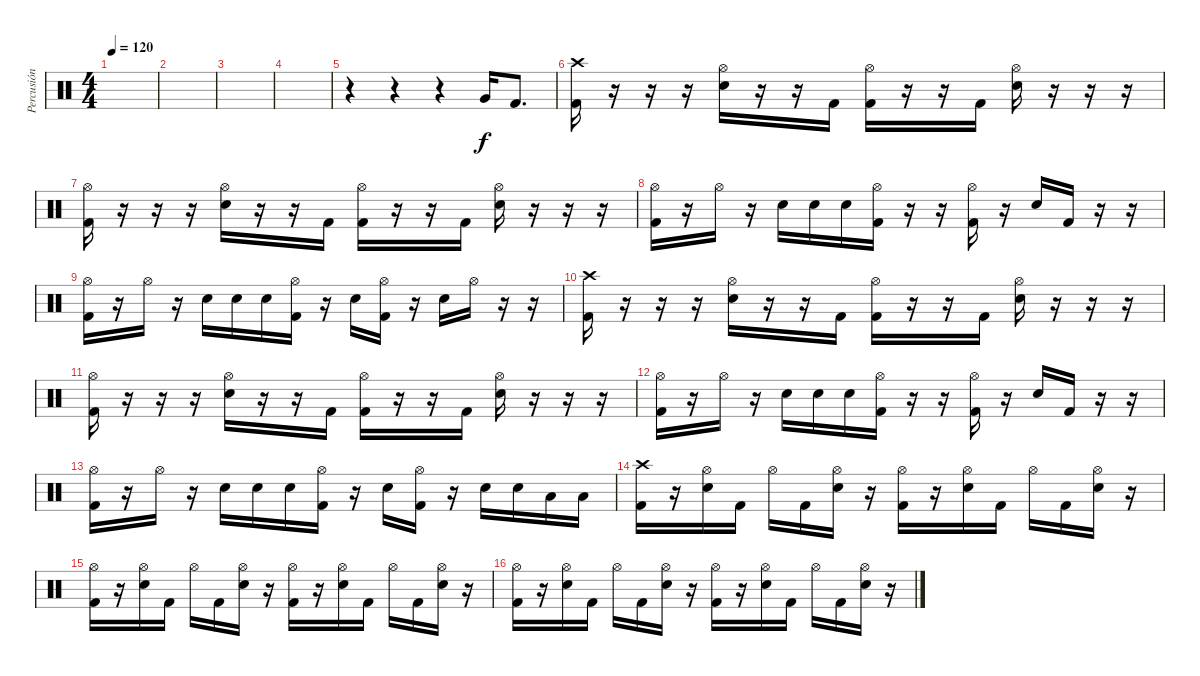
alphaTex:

\track ("Percusión" "Percusión") {instrument percussion}
\staff {score}
\articulation defaults
\ts (4 4)
\tempo 120
\clef neutral
\ks c
|
|
|
|
r.4 r.4 r.4 "Very Low Tom (hit)".16 "Kick (hit) 2".8{d} |
("Crash high (hit)" "Kick (hit) 2").16 r.16 r.16 r.16 ("Hi-Hat (open)" "Electric Snare (hit)").16 r.16 r.16 "Kick (hit) 2".16 ("Hi-Hat (open)" "Kick (hit) 2").16 r.16 r.16 "Kick (hit) 2".16 ("Hi-Hat (open)" "Electric Snare (hit)").16 r.16 r.16 r.16 |
("Hi-Hat (open)" "Kick (hit) 2").16 r.16 r.16 r.16 ("Hi-Hat (open)" "Electric Snare (hit)").16 r.16 r.16 "Kick (hit) 2".16 ("Hi-Hat (open)" "Kick (hit) 2").16 r.16 r.16 "Kick (hit) 2".16 ("Hi-Hat (open)" "Electric Snare (hit)").16 r.16 r.16 r.16 |
("Hi-Hat (open)" "Kick (hit) 2").16 r.16 "Hi-Hat (open)".16 r.16 "Electric Snare (hit)".16 "Electric Snare (hit)".16 "Electric Snare (hit)".16 ("Hi-Hat (open)" "Kick (hit) 2").16 r.16 r.16 ("Hi-Hat (open)" "Kick (hit) 2").16 r.16 "Electric Snare (hit)".16 "Kick (hit) 2".16 r.16 r.16 |
("Hi-Hat (open)" "Kick (hit) 2").16 r.16 "Hi-Hat (open)".16 r.16 "Electric Snare (hit)".16 "Electric Snare (hit)".16 "Electric Snare (hit)".16 ("Hi-Hat (open)" "Kick (hit) 2").16 r.16 "Electric Snare (hit)".16 ("Hi-Hat (open)" "Kick (hit) 2").16 r.16 "Electric Snare (hit)".16 "Hi-Hat (open)".16 r.16 r.16 |
("Crash high (hit)" "Kick (hit) 2").16 r.16 r.16 r.16 ("Hi-Hat (open)" "Electric Snare (hit)").16 r.16 r.16 "Kick (hit) 2".16 ("Hi-Hat (open)" "Kick (hit) 2").16 r.16 r.16 "Kick (hit) 2".16 ("Hi-Hat (open)" "Electric Snare (hit)").16 r.16 r.16 r.16 |
("Hi-Hat (open)" "Kick (hit) 2").16 r.16 r.16 r.16 ("Hi-Hat (open)" "Electric Snare (hit)").16 r.16 r.16 "Kick (hit) 2".16 ("Hi-Hat (open)" "Kick (hit) 2").16 r.16 r.16 "Kick (hit) 2".16 ("Hi-Hat (open)" "Electric Snare (hit)").16 r.16 r.16 r.16 |
("Hi-Hat (open)" "Kick (hit) 2").16 r.16 "Hi-Hat (open)".16 r.16 "Electric Snare (hit)".16 "Electric Snare (hit)".16 "Electric Snare (hit)".16 ("Hi-Hat (open)" "Kick (hit) 2").16 r.16 r.16 ("Hi-Hat (open)" "Kick (hit) 2").16 r.16 "Electric Snare (hit)".16 "Kick (hit) 2".16 r.16 r.16 |
("Hi-Hat (open)" "Kick (hit) 2").16 r.16 "Hi-Hat (open)".16 r.16 "Electric Snare (hit)".16 "Electric Snare (hit)".16 "Electric Snare (hit)".16 ("Hi-Hat (open)" "Kick (hit) 2").16 r.16 "Electric Snare (hit)".16 ("Hi-Hat (open)" "Kick (hit) 2").16 r.16 "Electric Snare (hit)".16 "Electric Snare (hit)".16 "Low Tom (hit)".16 "Low Tom (hit)".16 |
("Crash high (hit)" "Kick (hit) 2").16 r.16 ("Hi-Hat (open)" "Electric Snare (hit)").16 "Kick (hit) 2".16 "Hi-Hat (open)".16 "Kick (hit) 2".16 ("Hi-Hat (open)" "Electric Snare (hit)").16 r.16 ("Hi-Hat (open)" "Kick (hit) 2").16 r.16 ("Hi-Hat (open)" "Electric Snare (hit)").16 "Kick (hit) 2".16 "Hi-Hat (open)".16 "Kick (hit) 2".16 ("Hi-Hat (open)" "Electric Snare (hit)").16 r.16 |
("Hi-Hat (open)" "Kick (hit) 2").16 r.16 ("Hi-Hat (open)" "Electric Snare (hit)").16 "Kick (hit) 2".16 "Hi-Hat (open)".16 "Kick (hit) 2".16 ("Hi-Hat (open)" "Electric Snare (hit)").16 r.16 ("Hi-Hat (open)" "Kick (hit) 2").16 r.16 ("Hi-Hat (open)" "Electric Snare (hit)").16 "Kick (hit) 2".16 "Hi-Hat (open)".16 "Kick (hit) 2".16 ("Hi-Hat (open)" "Electric Snare (hit)").16 r.16 |
("Hi-Hat (open)" "Kick (hit) 2").16 r.16 ("Hi-Hat (open)" "Electric Snare (hit)").16 "Kick (hit) 2".16 "Hi-Hat (open)".16 "Kick (hit) 2".16 ("Hi-Hat (open)" "Electric Snare (hit)").16 r.16 ("Hi-Hat (open)" "Kick (hit) 2").16 r.16 ("Hi-Hat (open)" "Electric Snare (hit)").16 "Kick (hit) 2".16 "Hi-Hat (open)".16 "Kick (hit) 2".16 ("Hi-Hat (open)" "Electric Snare (hit)").16 r.16
